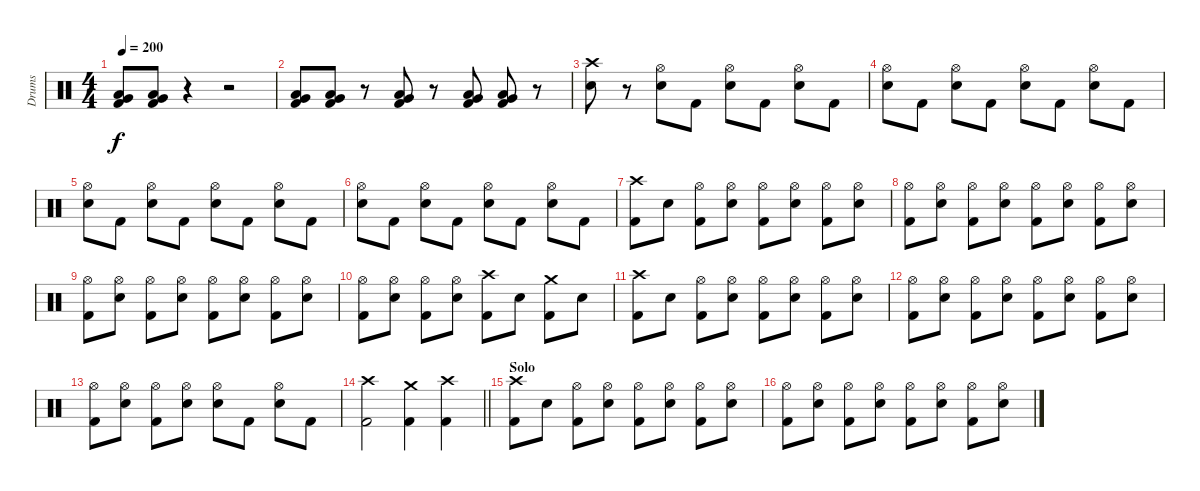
\track ("Drums" "Drums") {instrument percussion}
\staff {score}
\articulation defaults
\ts (4 4)
\tempo 200
\clef neutral
\ks c
("Low Tom (hit)" "Very Low Tom (hit)" "Kick (hit) 2").8{dy f} ("Low Tom (hit)" "Very Low Tom (hit)" "Kick (hit) 2").8 r.4 r.2 |
("Low Tom (hit)" "Very Low Tom (hit)" "Kick (hit) 2").8 ("Low Tom (hit)" "Very Low Tom (hit)" "Kick (hit) 2").8 r.8 ("Low Tom (hit)" "Very Low Tom (hit)" "Kick (hit) 2").8 r.8 ("Low Tom (hit)" "Very Low Tom (hit)" "Kick (hit) 2").8 ("Low Tom (hit)" "Very Low Tom (hit)" "Kick (hit) 2").8 r.8 |
("Crash high (hit)" "Snare (hit) 2").8 r.8 ("Snare (hit) 2" "Hi-Hat (open)").8 "Kick (hit) 2".8 ("Snare (hit) 2" "Hi-Hat (open)").8 "Kick (hit) 2".8 ("Snare (hit) 2" "Hi-Hat (open)").8 "Kick (hit) 2".8 |
("Snare (hit) 2" "Hi-Hat (open)").8 "Kick (hit) 2".8 ("Snare (hit) 2" "Hi-Hat (open)").8 "Kick (hit) 2".8 ("Snare (hit) 2" "Hi-Hat (open)").8 "Kick (hit) 2".8 ("Snare (hit) 2" "Hi-Hat (open)").8 "Kick (hit) 2".8 |
("Snare (hit) 2" "Hi-Hat (open)").8 "Kick (hit) 2".8 ("Snare (hit) 2" "Hi-Hat (open)").8 "Kick (hit) 2".8 ("Snare (hit) 2" "Hi-Hat (open)").8 "Kick (hit) 2".8 ("Snare (hit) 2" "Hi-Hat (open)").8 "Kick (hit) 2".8 |
("Snare (hit) 2" "Hi-Hat (open)").8 "Kick (hit) 2".8 ("Snare (hit) 2" "Hi-Hat (open)").8 "Kick (hit) 2".8 ("Snare (hit) 2" "Hi-Hat (open)").8 "Kick (hit) 2".8 ("Snare (hit) 2" "Hi-Hat (open)").8 "Kick (hit) 2".8 |
("Crash high (hit)" "Kick (hit) 2").8 "Snare (hit) 2".8 ("Hi-Hat (open)" "Kick (hit) 2").8 ("Snare (hit) 2" "Hi-Hat (open)").8 ("Hi-Hat (open)" "Kick (hit) 2").8 ("Snare (hit) 2" "Hi-Hat (open)").8 ("Hi-Hat (open)" "Kick (hit) 2").8 ("Snare (hit) 2" "Hi-Hat (open)").8 |
("Hi-Hat (open)" "Kick (hit) 2").8 ("Snare (hit) 2" "Hi-Hat (open)").8 ("Hi-Hat (open)" "Kick (hit) 2").8 ("Snare (hit) 2" "Hi-Hat (open)").8 ("Hi-Hat (open)" "Kick (hit) 2").8 ("Snare (hit) 2" "Hi-Hat (open)").8 ("Hi-Hat (open)" "Kick (hit) 2").8 ("Snare (hit) 2" "Hi-Hat (open)").8 |
("Hi-Hat (open)" "Kick (hit) 2").8 ("Snare (hit) 2" "Hi-Hat (open)").8 ("Hi-Hat (open)" "Kick (hit) 2").8 ("Snare (hit) 2" "Hi-Hat (open)").8 ("Hi-Hat (open)" "Kick (hit) 2").8 ("Snare (hit) 2" "Hi-Hat (open)").8 ("Hi-Hat (open)" "Kick (hit) 2").8 ("Snare (hit) 2" "Hi-Hat (open)").8 |
("Hi-Hat (open)" "Kick (hit) 2").8 ("Snare (hit) 2" "Hi-Hat (open)").8 ("Hi-Hat (open)" "Kick (hit) 2").8 ("Snare (hit) 2" "Hi-Hat (open)").8 ("Crash high (hit)" "Kick (hit) 2").8 "Snare (hit) 2".8 ("Crash medium (hit)" "Kick (hit) 2").8 "Snare (hit) 2".8 |
("Crash high (hit)" "Kick (hit) 2").8 "Snare (hit) 2".8 ("Hi-Hat (open)" "Kick (hit) 2").8 ("Snare (hit) 2" "Hi-Hat (open)").8 ("Hi-Hat (open)" "Kick (hit) 2").8 ("Snare (hit) 2" "Hi-Hat (open)").8 ("Hi-Hat (open)" "Kick (hit) 2").8 ("Snare (hit) 2" "Hi-Hat (open)").8 |
("Hi-Hat (open)" "Kick (hit) 2").8 ("Snare (hit) 2" "Hi-Hat (open)").8 ("Hi-Hat (open)" "Kick (hit) 2").8 ("Snare (hit) 2" "Hi-Hat (open)").8 ("Hi-Hat (open)" "Kick (hit) 2").8 ("Snare (hit) 2" "Hi-Hat (open)").8 ("Hi-Hat (open)" "Kick (hit) 2").8 ("Snare (hit) 2" "Hi-Hat (open)").8 |
("Hi-Hat (open)" "Kick (hit) 2").8 ("Snare (hit) 2" "Hi-Hat (open)").8 ("Hi-Hat (open)" "Kick (hit) 2").8 ("Snare (hit) 2" "Hi-Hat (open)").8 ("Snare (hit) 2" "Hi-Hat (open)").8 "Kick (hit) 2".8 ("Snare (hit) 2" "Hi-Hat (open)").8 "Kick (hit) 2".8 |
\barLineRight lightlight
("Crash high (hit)" "Kick (hit) 2").2 ("Crash medium (hit)" "Kick (hit) 2").4 ("Crash high (hit)" "Kick (hit) 2").4 |
\section ("" "Solo")
("Crash high (hit)" "Kick (hit) 2").8 "Snare (hit) 2".8 ("Hi-Hat (open)" "Kick (hit) 2").8 ("Snare (hit) 2" "Hi-Hat (open)").8 ("Hi-Hat (open)" "Kick (hit) 2").8 ("Snare (hit) 2" "Hi-Hat (open)").8 ("Hi-Hat (open)" "Kick (hit) 2").8 ("Snare (hit) 2" "Hi-Hat (open)").8 |
("Hi-Hat (open)" "Kick (hit) 2").8 ("Snare (hit) 2" "Hi-Hat (open)").8 ("Hi-Hat (open)" "Kick (hit) 2").8 ("Snare (hit) 2" "Hi-Hat (open)").8 ("Hi-Hat (open)" "Kick (hit) 2").8 ("Snare (hit) 2" "Hi-Hat (open)").8 ("Hi-Hat (open)" "Kick (hit) 2").8 ("Snare (hit) 2" "Hi-Hat (open)").8
